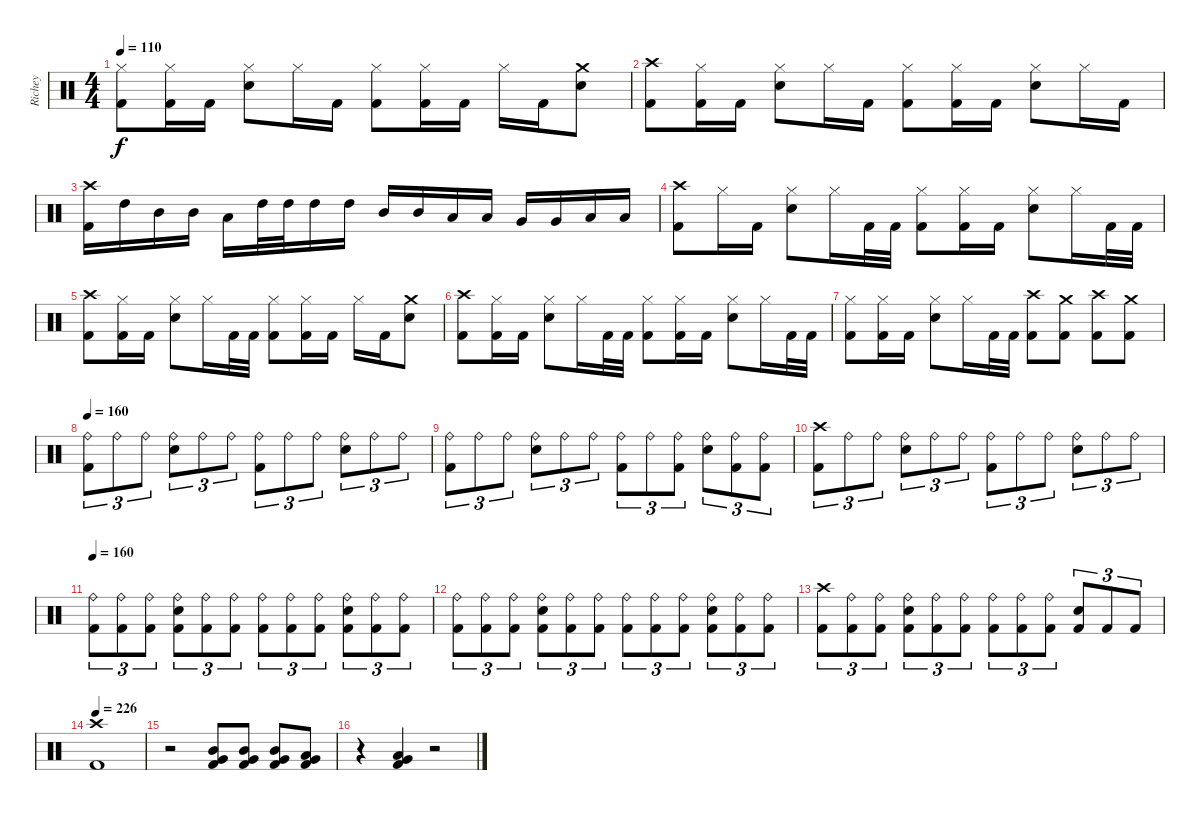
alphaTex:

\track ("Richey" "Richey") {instrument percussion}
\staff {score}
\articulation defaults
\ts (4 4)
\tempo 110
\clef neutral
\ks c
("Hi-Hat (closed)" "Kick (hit) 2").8{dy f} ("Hi-Hat (closed)" "Kick (hit) 2").16 "Kick (hit) 2".16 ("Hi-Hat (closed)" "Snare (hit) 2").8 "Hi-Hat (closed)".16 "Kick (hit) 2".16 ("Hi-Hat (closed)" "Kick (hit) 2").8 ("Hi-Hat (closed)" "Kick (hit) 2").16 "Kick (hit) 2".16 "Hi-Hat (closed)".16 "Kick (hit) 2".16 ("Crash medium (hit)" "Snare (hit) 2").8 |
("Crash high (hit)" "Kick (hit) 2").8 ("Hi-Hat (closed)" "Kick (hit) 2").16 "Kick (hit) 2".16 ("Hi-Hat (closed)" "Snare (hit) 2").8 "Hi-Hat (closed)".16 "Kick (hit) 2".16 ("Hi-Hat (closed)" "Kick (hit) 2").8 ("Hi-Hat (closed)" "Kick (hit) 2").16 "Kick (hit) 2".16 ("Hi-Hat (closed)" "Snare (hit) 2").8 "Hi-Hat (closed)".16 "Kick (hit) 2".16 |
("Crash high (hit)" "Kick (hit) 2").16 "High Tom (hit)".16 "Mid Tom (hit)".16 "Mid Tom (hit)".16 "Low Tom (hit)".16 "High Tom (hit)".32 "High Tom (hit)".32 "High Tom (hit)".16 "High Tom (hit)".16 "Mid Tom (hit)".16 "Mid Tom (hit)".16 "Low Tom (hit)".16 "Low Tom (hit)".16 "Very Low Tom (hit)".16 "Very Low Tom (hit)".16 "Low Floor Tom (hit)".16 "Low Floor Tom (hit)".16 |
("Crash high (hit)" "Kick (hit) 2").8 "Hi-Hat (closed)".16 "Kick (hit) 2".16 ("Hi-Hat (closed)" "Snare (hit) 2").8 "Hi-Hat (closed)".16 "Kick (hit) 2".32 "Kick (hit) 2".32 ("Hi-Hat (closed)" "Kick (hit) 2").8 ("Hi-Hat (closed)" "Kick (hit) 2").16 "Kick (hit) 2".16 ("Hi-Hat (closed)" "Snare (hit) 2").8 "Hi-Hat (closed)".16 "Kick (hit) 2".32 "Kick (hit) 2".32 |
("Crash high (hit)" "Kick (hit) 2").8 ("Hi-Hat (closed)" "Kick (hit) 2").16 "Kick (hit) 2".16 ("Hi-Hat (closed)" "Snare (hit) 2").8 "Hi-Hat (closed)".16 "Kick (hit) 2".32 "Kick (hit) 2".32 ("Hi-Hat (closed)" "Kick (hit) 2").8 ("Hi-Hat (closed)" "Kick (hit) 2").16 "Kick (hit) 2".16 "Hi-Hat (closed)".16 "Kick (hit) 2".16 ("Crash medium (hit)" "Snare (hit) 2").8 |
("Crash high (hit)" "Kick (hit) 2").8 ("Hi-Hat (closed)" "Kick (hit) 2").16 "Kick (hit) 2".16 ("Hi-Hat (closed)" "Snare (hit) 2").8 "Hi-Hat (closed)".16 "Kick (hit) 2".32 "Kick (hit) 2".32 ("Hi-Hat (closed)" "Kick (hit) 2").8 ("Hi-Hat (closed)" "Kick (hit) 2").16 "Kick (hit) 2".16 ("Hi-Hat (closed)" "Snare (hit) 2").8 "Hi-Hat (closed)".16 "Kick (hit) 2".32 "Kick (hit) 2".32 |
("Hi-Hat (closed)" "Kick (hit) 2").8 ("Hi-Hat (closed)" "Kick (hit) 2").16 "Kick (hit) 2".16 ("Hi-Hat (closed)" "Snare (hit) 2").8 "Hi-Hat (closed)".16 "Kick (hit) 2".32 "Kick (hit) 2".32 ("Crash high (hit)" "Kick (hit) 2").8 ("Crash medium (hit)" "Kick (hit) 2").8 ("Crash high (hit)" "Kick (hit) 2").8 ("Crash medium (hit)" "Kick (hit) 2").8 |
\tempo 160
("Ride (bell)" "Kick (hit) 2").8{tu (3 2)} "Ride (bell)".8{tu (3 2)} "Ride (bell)".8{tu (3 2)} ("Ride (bell)" "Snare (hit) 2").8{tu (3 2)} "Ride (bell)".8{tu (3 2)} "Ride (bell)".8{tu (3 2)} ("Ride (bell)" "Kick (hit) 2").8{tu (3 2)} "Ride (bell)".8{tu (3 2)} "Ride (bell)".8{tu (3 2)} ("Ride (bell)" "Snare (hit) 2").8{tu (3 2)} "Ride (bell)".8{tu (3 2)} "Ride (bell)".8{tu (3 2)} |
("Ride (bell)" "Kick (hit) 2").8{tu (3 2)} "Ride (bell)".8{tu (3 2)} "Ride (bell)".8{tu (3 2)} ("Ride (bell)" "Snare (hit) 2").8{tu (3 2)} "Ride (bell)".8{tu (3 2)} "Ride (bell)".8{tu (3 2)} ("Ride (bell)" "Kick (hit) 2").8{tu (3 2)} "Ride (bell)".8{tu (3 2)} ("Ride (bell)" "Kick (hit) 2").8{tu (3 2)} ("Ride (bell)" "Snare (hit) 2").8{tu (3 2)} ("Ride (bell)" "Kick (hit) 2").8{tu (3 2)} ("Ride (bell)" "Kick (hit) 2").8{tu (3 2)} |
("Crash high (hit)" "Kick (hit) 2").8{tu (3 2)} "Ride (bell)".8{tu (3 2)} "Ride (bell)".8{tu (3 2)} ("Ride (bell)" "Snare (hit) 2").8{tu (3 2)} "Ride (bell)".8{tu (3 2)} "Ride (bell)".8{tu (3 2)} ("Ride (bell)" "Kick (hit) 2").8{tu (3 2)} "Ride (bell)".8{tu (3 2)} "Ride (bell)".8{tu (3 2)} ("Ride (bell)" "Snare (hit) 2").8{tu (3 2)} "Ride (bell)".8{tu (3 2)} "Ride (bell)".8{tu (3 2)} |
\tempo 160
("Ride (bell)" "Kick (hit) 2").8{tu (3 2)} ("Ride (bell)" "Kick (hit) 2").8{tu (3 2)} ("Ride (bell)" "Kick (hit) 2").8{tu (3 2)} ("Ride (bell)" "Snare (hit) 2" "Kick (hit) 2").8{tu (3 2)} ("Ride (bell)" "Kick (hit) 2").8{tu (3 2)} ("Ride (bell)" "Kick (hit) 2").8{tu (3 2)} ("Ride (bell)" "Kick (hit) 2").8{tu (3 2)} ("Ride (bell)" "Kick (hit) 2").8{tu (3 2)} ("Ride (bell)" "Kick (hit) 2").8{tu (3 2)} ("Ride (bell)" "Snare (hit) 2" "Kick (hit) 2").8{tu (3 2)} ("Ride (bell)" "Kick (hit) 2").8{tu (3 2)} ("Ride (bell)" "Kick (hit) 2").8{tu (3 2)} |
("Ride (bell)" "Kick (hit) 2").8{tu (3 2)} ("Ride (bell)" "Kick (hit) 2").8{tu (3 2)} ("Ride (bell)" "Kick (hit) 2").8{tu (3 2)} ("Ride (bell)" "Snare (hit) 2" "Kick (hit) 2").8{tu (3 2)} ("Ride (bell)" "Kick (hit) 2").8{tu (3 2)} ("Ride (bell)" "Kick (hit) 2").8{tu (3 2)} ("Ride (bell)" "Kick (hit) 2").8{tu (3 2)} ("Ride (bell)" "Kick (hit) 2").8{tu (3 2)} ("Ride (bell)" "Kick (hit) 2").8{tu (3 2)} ("Ride (bell)" "Snare (hit) 2" "Kick (hit) 2").8{tu (3 2)} ("Ride (bell)" "Kick (hit) 2").8{tu (3 2)} ("Ride (bell)" "Kick (hit) 2").8{tu (3 2)} |
("Crash high (hit)" "Kick (hit) 2").8{tu (3 2)} ("Ride (bell)" "Kick (hit) 2").8{tu (3 2)} ("Ride (bell)" "Kick (hit) 2").8{tu (3 2)} ("Ride (bell)" "Snare (hit) 2" "Kick (hit) 2").8{tu (3 2)} ("Ride (bell)" "Kick (hit) 2").8{tu (3 2)} ("Ride (bell)" "Kick (hit) 2").8{tu (3 2)} ("Ride (bell)" "Kick (hit) 2").8{tu (3 2)} ("Ride (bell)" "Kick (hit) 2").8{tu (3 2)} ("Ride (bell)" "Kick (hit) 2").8{tu (3 2)} ("Snare (hit) 2" "Kick (hit) 2").8{tu (3 2)} "Kick (hit) 2".8{tu (3 2)} "Kick (hit) 2".8{tu (3 2)} |
\tempo 226
("Crash high (hit)" "Kick (hit) 2").1 |
r.2 ("Mid Tom (hit)" "Very Low Tom (hit)" "Kick (hit) 2").8 ("Mid Tom (hit)" "Very Low Tom (hit)" "Kick (hit) 2").8 ("Mid Tom (hit)" "Very Low Tom (hit)" "Kick (hit) 2").8 ("Low Tom (hit)" "Very Low Tom (hit)" "Kick (hit) 2").8 |
r.4 ("Low Tom (hit)" "Very Low Tom (hit)" "Kick (hit) 2").4 r.2
